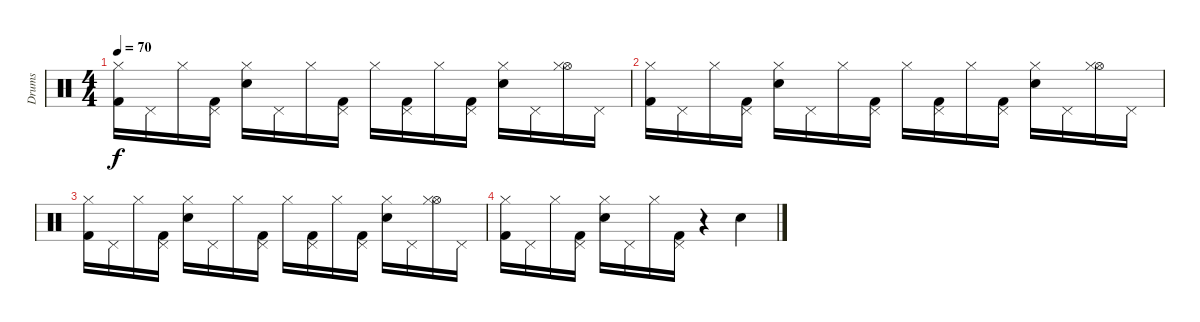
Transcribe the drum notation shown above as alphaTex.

\track ("Drums" "Drums") {instrument percussion}
\staff {score}
\articulation defaults
\ts (4 4)
\tempo 70
\clef neutral
\ks c
("Hi-Hat (closed)" "Kick (hit) 2").16{dy f} "Pedal Hi-Hat (hit)".16 "Hi-Hat (closed)".16 ("Pedal Hi-Hat (hit)" "Kick (hit) 2").16 ("Hi-Hat (closed)" "Electric Snare (hit)").16 "Pedal Hi-Hat (hit)".16 "Hi-Hat (closed)".16 ("Pedal Hi-Hat (hit)" "Kick (hit) 2").16 "Hi-Hat (closed)".16 ("Pedal Hi-Hat (hit)" "Kick (hit) 2").16 "Hi-Hat (closed)".16 ("Pedal Hi-Hat (hit)" "Kick (hit) 2").16 ("Hi-Hat (closed)" "Electric Snare (hit)").16 "Pedal Hi-Hat (hit)".16 ("Hi-Hat (open)" "Hi-Hat (closed)").16 "Pedal Hi-Hat (hit)".16 |
("Hi-Hat (closed)" "Kick (hit) 2").16 "Pedal Hi-Hat (hit)".16 "Hi-Hat (closed)".16 ("Pedal Hi-Hat (hit)" "Kick (hit) 2").16 ("Hi-Hat (closed)" "Electric Snare (hit)").16 "Pedal Hi-Hat (hit)".16 "Hi-Hat (closed)".16 ("Pedal Hi-Hat (hit)" "Kick (hit) 2").16 "Hi-Hat (closed)".16 ("Pedal Hi-Hat (hit)" "Kick (hit) 2").16 "Hi-Hat (closed)".16 ("Pedal Hi-Hat (hit)" "Kick (hit) 2").16 ("Hi-Hat (closed)" "Electric Snare (hit)").16 "Pedal Hi-Hat (hit)".16 ("Hi-Hat (open)" "Hi-Hat (closed)").16 "Pedal Hi-Hat (hit)".16 |
("Hi-Hat (closed)" "Kick (hit) 2").16 "Pedal Hi-Hat (hit)".16 "Hi-Hat (closed)".16 ("Pedal Hi-Hat (hit)" "Kick (hit) 2").16 ("Hi-Hat (closed)" "Electric Snare (hit)").16 "Pedal Hi-Hat (hit)".16 "Hi-Hat (closed)".16 ("Pedal Hi-Hat (hit)" "Kick (hit) 2").16 "Hi-Hat (closed)".16 ("Pedal Hi-Hat (hit)" "Kick (hit) 2").16 "Hi-Hat (closed)".16 ("Pedal Hi-Hat (hit)" "Kick (hit) 2").16 ("Hi-Hat (closed)" "Electric Snare (hit)").16 "Pedal Hi-Hat (hit)".16 ("Hi-Hat (open)" "Hi-Hat (closed)").16 "Pedal Hi-Hat (hit)".16 |
("Hi-Hat (closed)" "Kick (hit) 2").16 "Pedal Hi-Hat (hit)".16 "Hi-Hat (closed)".16 ("Pedal Hi-Hat (hit)" "Kick (hit) 2").16 ("Hi-Hat (closed)" "Electric Snare (hit)").16 "Pedal Hi-Hat (hit)".16 "Hi-Hat (closed)".16 ("Pedal Hi-Hat (hit)" "Kick (hit) 2").16 r.4 "Electric Snare (hit)".4
